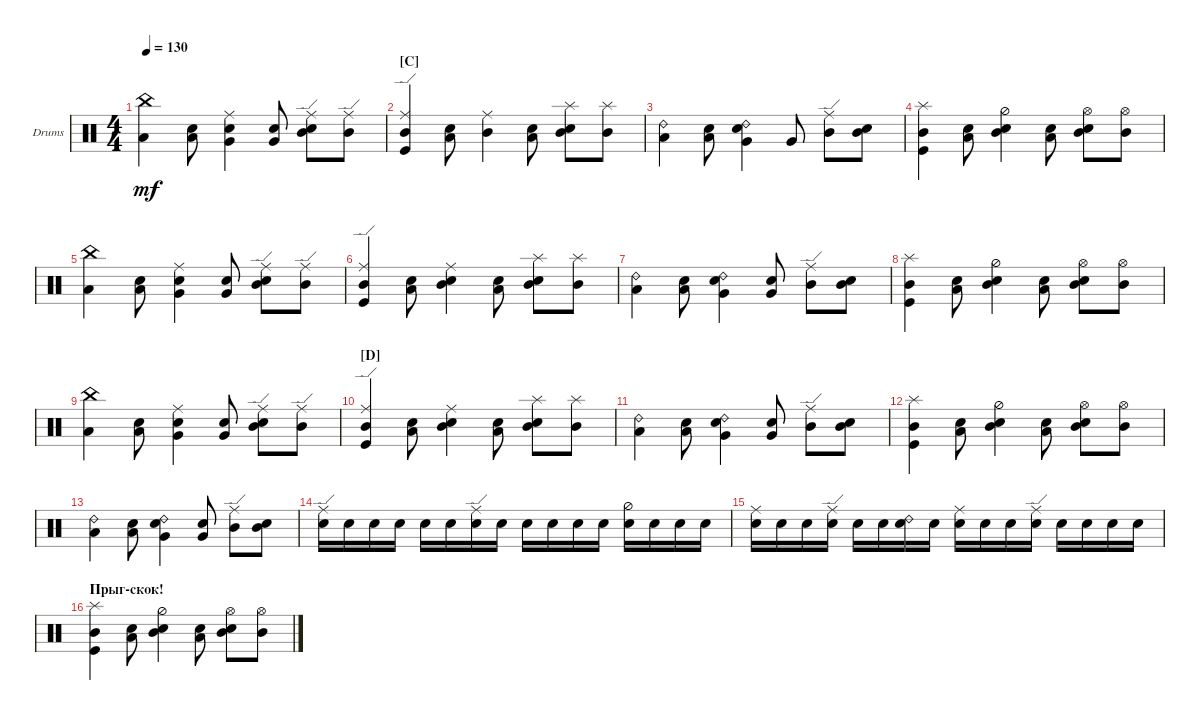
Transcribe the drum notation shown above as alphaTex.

\defaultSystemsLayout 4
\bracketExtendMode groupsimilarinstruments
\firstSystemTrackNameOrientation horizontal
\otherSystemsTrackNameOrientation horizontal
\track ("Drumkit" "Drums") {instrument percussion}
\staff {score}
\articulation defaults
\ts (4 4)
\tempo 130
\clef neutral
\ks c
("Low Tom (hit)" "China (hit)").4{dy mf} ("Low Tom (hit)" "Snare (hit) 2").8 ("Very Low Tom (hit)" "Snare (hit) 2" "Ride (middle)").4 ("Very Low Tom (hit)" "Snare (hit) 2").8 ("Mid Tom (hit)" "Snare (hit) 2" "Ride (edge)").8 ("Mid Tom (hit)" "Ride (edge)").8 |
\section ("C" "")
("Mid Tom (hit)" "Kick (hit)" "Ride (edge)").4 ("Low Tom (hit)" "Snare (hit) 2").8 ("Mid Tom (hit)" "Ride (middle)").4 ("Low Tom (hit)" "Snare (hit) 2").8 ("Mid Tom (hit)" "Snare (hit) 2" "Splash (hit)").8 ("Mid Tom (hit)" "Splash (hit)").8 |
("Low Tom (hit)" "Ride (bell) 2").4 ("Low Tom (hit)" "Snare (hit) 2").8 ("Very Low Tom (hit)" "Snare (hit) 2" "Ride (bell) 2").4 "Very Low Tom (hit)".8 ("Mid Tom (hit)" "Ride (edge)").8 ("Mid Tom (hit)" "Snare (hit) 2").8 |
("Mid Tom (hit)" "Kick (hit)" "Splash (hit)").4 ("Low Tom (hit)" "Snare (hit) 2").8 ("Mid Tom (hit)" "Snare (hit) 2" "Hi-Hat (half)").4 ("Low Tom (hit)" "Snare (hit) 2").8 ("Mid Tom (hit)" "Snare (hit) 2" "Hi-Hat (open)").8 ("Mid Tom (hit)" "Hi-Hat (open)").8 |
("Low Tom (hit)" "China (hit)").4 ("Low Tom (hit)" "Snare (hit) 2").8 ("Very Low Tom (hit)" "Snare (hit) 2" "Ride (middle)").4 ("Very Low Tom (hit)" "Snare (hit) 2").8 ("Mid Tom (hit)" "Snare (hit) 2" "Ride (edge)").8 ("Mid Tom (hit)" "Ride (edge)").8 |
("Mid Tom (hit)" "Kick (hit)" "Ride (edge)").4 ("Low Tom (hit)" "Snare (hit) 2").8 ("Mid Tom (hit)" "Snare (hit) 2" "Ride (middle)").4 ("Low Tom (hit)" "Snare (hit) 2").8 ("Mid Tom (hit)" "Snare (hit) 2" "Splash (hit)").8 ("Mid Tom (hit)" "Splash (hit)").8 |
("Low Tom (hit)" "Ride (bell) 2").4 ("Low Tom (hit)" "Snare (hit) 2").8 ("Very Low Tom (hit)" "Snare (hit) 2" "Ride (bell) 2").4 ("Very Low Tom (hit)" "Snare (hit) 2").8 ("Mid Tom (hit)" "Ride (edge)").8 ("Mid Tom (hit)" "Snare (hit) 2").8 |
("Mid Tom (hit)" "Kick (hit)" "Splash (hit)").4 ("Low Tom (hit)" "Snare (hit) 2").8 ("Mid Tom (hit)" "Snare (hit) 2" "Hi-Hat (half)").4 ("Low Tom (hit)" "Snare (hit) 2").8 ("Mid Tom (hit)" "Snare (hit) 2" "Hi-Hat (open)").8 ("Mid Tom (hit)" "Hi-Hat (open)").8 |
("Low Tom (hit)" "China (hit)").4 ("Low Tom (hit)" "Snare (hit) 2").8 ("Very Low Tom (hit)" "Snare (hit) 2" "Ride (middle)").4 ("Very Low Tom (hit)" "Snare (hit) 2").8 ("Mid Tom (hit)" "Snare (hit) 2" "Ride (edge)").8 ("Mid Tom (hit)" "Ride (edge)").8 |
\section ("D" "")
("Mid Tom (hit)" "Kick (hit)" "Ride (edge)").4 ("Low Tom (hit)" "Snare (hit) 2").8 ("Mid Tom (hit)" "Snare (hit) 2" "Ride (middle)").4 ("Low Tom (hit)" "Snare (hit) 2").8 ("Mid Tom (hit)" "Snare (hit) 2" "Splash (hit)").8 ("Mid Tom (hit)" "Splash (hit)").8 |
("Low Tom (hit)" "Ride (bell) 2").4 ("Low Tom (hit)" "Snare (hit) 2").8 ("Very Low Tom (hit)" "Snare (hit) 2" "Ride (bell) 2").4 ("Very Low Tom (hit)" "Snare (hit) 2").8 ("Mid Tom (hit)" "Ride (edge)").8 ("Mid Tom (hit)" "Snare (hit) 2").8 |
("Mid Tom (hit)" "Kick (hit)" "Splash (hit)").4 ("Low Tom (hit)" "Snare (hit) 2").8 ("Mid Tom (hit)" "Snare (hit) 2" "Hi-Hat (half)").4 ("Low Tom (hit)" "Snare (hit) 2").8 ("Mid Tom (hit)" "Snare (hit) 2" "Hi-Hat (open)").8 ("Mid Tom (hit)" "Hi-Hat (open)").8 |
("Low Tom (hit)" "Ride (bell) 2").4 ("Low Tom (hit)" "Snare (hit) 2").8 ("Very Low Tom (hit)" "Snare (hit) 2" "Ride (bell) 2").4 ("Very Low Tom (hit)" "Snare (hit) 2").8 ("Mid Tom (hit)" "Ride (edge)").8 ("Mid Tom (hit)" "Snare (hit) 2").8 |
("Snare (hit) 2" "Ride (edge)").16 "Snare (hit) 2".16 "Snare (hit) 2".16 "Snare (hit) 2".16 "Snare (hit) 2".16 "Snare (hit) 2".16 ("Snare (hit) 2" "Ride (edge)").16 "Snare (hit) 2".16 "Snare (hit) 2".16 "Snare (hit) 2".16 "Snare (hit) 2".16 "Snare (hit) 2".16 ("Snare (hit) 2" "Hi-Hat (half)").16 "Snare (hit) 2".16 "Snare (hit) 2".16 "Snare (hit) 2".16 |
("Snare (hit) 2" "Ride (middle)").16 "Snare (hit) 2".16 "Snare (hit) 2".16 ("Snare (hit) 2" "Ride (edge)").16 "Snare (hit) 2".16 "Snare (hit) 2".16 ("Snare (hit) 2" "Ride (bell) 2").16 "Snare (hit) 2".16 ("Snare (hit) 2" "Ride (middle)").16 "Snare (hit) 2".16 "Snare (hit) 2".16 ("Snare (hit) 2" "Ride (edge)").16 "Snare (hit) 2".16 "Snare (hit) 2".16 "Snare (hit) 2".16 "Snare (hit) 2".16 |
\section ("" "Прыг-скок! ")
("Mid Tom (hit)" "Kick (hit)" "Splash (hit)").4 ("Low Tom (hit)" "Snare (hit) 2").8 ("Mid Tom (hit)" "Snare (hit) 2" "Hi-Hat (half)").4 ("Low Tom (hit)" "Snare (hit) 2").8 ("Mid Tom (hit)" "Snare (hit) 2" "Hi-Hat (open)").8 ("Mid Tom (hit)" "Hi-Hat (open)").8
